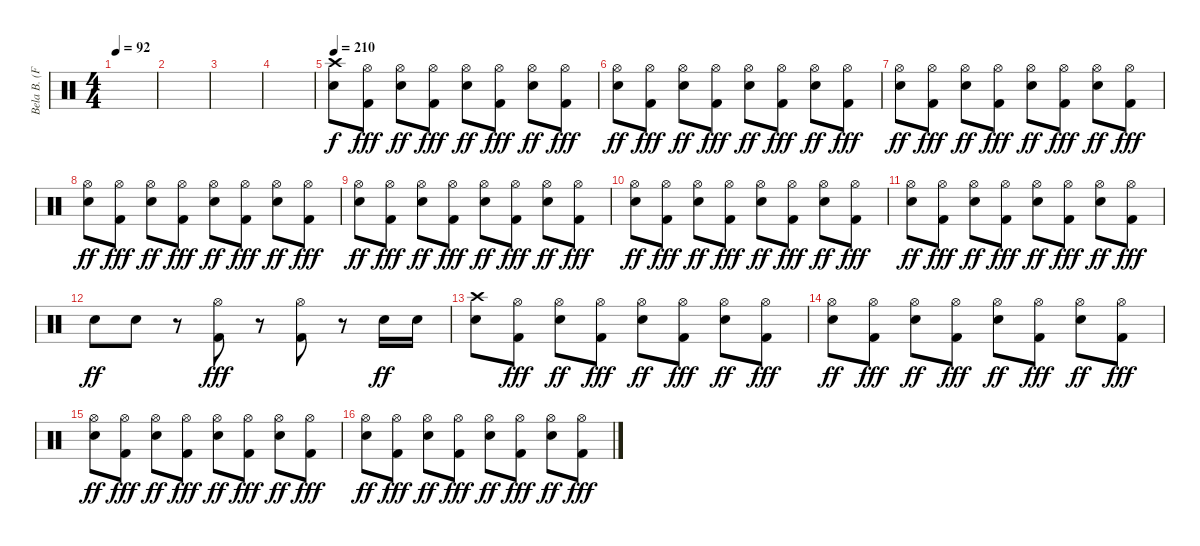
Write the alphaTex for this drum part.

\track ("Bela B. (Felsenheimer)" "Bela B. (F") {instrument percussion}
\staff {score}
\articulation defaults
\ts (4 4)
\tempo 92
\clef neutral
\ks c
|
|
|
|
\tempo 210
("Crash high (hit)" "Electric Snare (hit)").8 ("Hi-Hat (open)" "Kick (hit) 2").8{dy fff} ("Hi-Hat (open)" "Electric Snare (hit)").8{dy ff} ("Hi-Hat (open)" "Kick (hit) 2").8{dy fff} ("Hi-Hat (open)" "Electric Snare (hit)").8{dy ff} ("Hi-Hat (open)" "Kick (hit) 2").8{dy fff} ("Hi-Hat (open)" "Electric Snare (hit)").8{dy ff} ("Hi-Hat (open)" "Kick (hit) 2").8{dy fff} |
("Hi-Hat (open)" "Electric Snare (hit)").8{dy ff} ("Hi-Hat (open)" "Kick (hit) 2").8{dy fff} ("Hi-Hat (open)" "Electric Snare (hit)").8{dy ff} ("Hi-Hat (open)" "Kick (hit) 2").8{dy fff} ("Hi-Hat (open)" "Electric Snare (hit)").8{dy ff} ("Hi-Hat (open)" "Kick (hit) 2").8{dy fff} ("Hi-Hat (open)" "Electric Snare (hit)").8{dy ff} ("Hi-Hat (open)" "Kick (hit) 2").8{dy fff} |
("Hi-Hat (open)" "Electric Snare (hit)").8{dy ff} ("Hi-Hat (open)" "Kick (hit) 2").8{dy fff} ("Hi-Hat (open)" "Electric Snare (hit)").8{dy ff} ("Hi-Hat (open)" "Kick (hit) 2").8{dy fff} ("Hi-Hat (open)" "Electric Snare (hit)").8{dy ff} ("Hi-Hat (open)" "Kick (hit) 2").8{dy fff} ("Hi-Hat (open)" "Electric Snare (hit)").8{dy ff} ("Hi-Hat (open)" "Kick (hit) 2").8{dy fff} |
("Hi-Hat (open)" "Electric Snare (hit)").8{dy ff} ("Hi-Hat (open)" "Kick (hit) 2").8{dy fff} ("Hi-Hat (open)" "Electric Snare (hit)").8{dy ff} ("Hi-Hat (open)" "Kick (hit) 2").8{dy fff} ("Hi-Hat (open)" "Electric Snare (hit)").8{dy ff} ("Hi-Hat (open)" "Kick (hit) 2").8{dy fff} ("Hi-Hat (open)" "Electric Snare (hit)").8{dy ff} ("Hi-Hat (open)" "Kick (hit) 2").8{dy fff} |
("Hi-Hat (open)" "Electric Snare (hit)").8{dy ff} ("Hi-Hat (open)" "Kick (hit) 2").8{dy fff} ("Hi-Hat (open)" "Electric Snare (hit)").8{dy ff} ("Hi-Hat (open)" "Kick (hit) 2").8{dy fff} ("Hi-Hat (open)" "Electric Snare (hit)").8{dy ff} ("Hi-Hat (open)" "Kick (hit) 2").8{dy fff} ("Hi-Hat (open)" "Electric Snare (hit)").8{dy ff} ("Hi-Hat (open)" "Kick (hit) 2").8{dy fff} |
("Hi-Hat (open)" "Electric Snare (hit)").8{dy ff} ("Hi-Hat (open)" "Kick (hit) 2").8{dy fff} ("Hi-Hat (open)" "Electric Snare (hit)").8{dy ff} ("Hi-Hat (open)" "Kick (hit) 2").8{dy fff} ("Hi-Hat (open)" "Electric Snare (hit)").8{dy ff} ("Hi-Hat (open)" "Kick (hit) 2").8{dy fff} ("Hi-Hat (open)" "Electric Snare (hit)").8{dy ff} ("Hi-Hat (open)" "Kick (hit) 2").8{dy fff} |
("Hi-Hat (open)" "Electric Snare (hit)").8{dy ff} ("Hi-Hat (open)" "Kick (hit) 2").8{dy fff} ("Hi-Hat (open)" "Electric Snare (hit)").8{dy ff} ("Hi-Hat (open)" "Kick (hit) 2").8{dy fff} ("Hi-Hat (open)" "Electric Snare (hit)").8{dy ff} ("Hi-Hat (open)" "Kick (hit) 2").8{dy fff} ("Hi-Hat (open)" "Electric Snare (hit)").8{dy ff} ("Hi-Hat (open)" "Kick (hit) 2").8{dy fff} |
"Electric Snare (hit)".8{dy ff} "Electric Snare (hit)".8 r.8 ("Hi-Hat (open)" "Kick (hit) 2").8{dy fff} r.8 ("Hi-Hat (open)" "Kick (hit) 2").8 r.8 "Electric Snare (hit)".16{dy ff} "Electric Snare (hit)".16 |
("Crash high (hit)" "Electric Snare (hit)").8 ("Hi-Hat (open)" "Kick (hit) 2").8{dy fff} ("Hi-Hat (open)" "Electric Snare (hit)").8{dy ff} ("Hi-Hat (open)" "Kick (hit) 2").8{dy fff} ("Hi-Hat (open)" "Electric Snare (hit)").8{dy ff} ("Hi-Hat (open)" "Kick (hit) 2").8{dy fff} ("Hi-Hat (open)" "Electric Snare (hit)").8{dy ff} ("Hi-Hat (open)" "Kick (hit) 2").8{dy fff} |
("Hi-Hat (open)" "Electric Snare (hit)").8{dy ff} ("Hi-Hat (open)" "Kick (hit) 2").8{dy fff} ("Hi-Hat (open)" "Electric Snare (hit)").8{dy ff} ("Hi-Hat (open)" "Kick (hit) 2").8{dy fff} ("Hi-Hat (open)" "Electric Snare (hit)").8{dy ff} ("Hi-Hat (open)" "Kick (hit) 2").8{dy fff} ("Hi-Hat (open)" "Electric Snare (hit)").8{dy ff} ("Hi-Hat (open)" "Kick (hit) 2").8{dy fff} |
("Hi-Hat (open)" "Electric Snare (hit)").8{dy ff} ("Hi-Hat (open)" "Kick (hit) 2").8{dy fff} ("Hi-Hat (open)" "Electric Snare (hit)").8{dy ff} ("Hi-Hat (open)" "Kick (hit) 2").8{dy fff} ("Hi-Hat (open)" "Electric Snare (hit)").8{dy ff} ("Hi-Hat (open)" "Kick (hit) 2").8{dy fff} ("Hi-Hat (open)" "Electric Snare (hit)").8{dy ff} ("Hi-Hat (open)" "Kick (hit) 2").8{dy fff} |
("Hi-Hat (open)" "Electric Snare (hit)").8{dy ff} ("Hi-Hat (open)" "Kick (hit) 2").8{dy fff} ("Hi-Hat (open)" "Electric Snare (hit)").8{dy ff} ("Hi-Hat (open)" "Kick (hit) 2").8{dy fff} ("Hi-Hat (open)" "Electric Snare (hit)").8{dy ff} ("Hi-Hat (open)" "Kick (hit) 2").8{dy fff} ("Hi-Hat (open)" "Electric Snare (hit)").8{dy ff} ("Hi-Hat (open)" "Kick (hit) 2").8{dy fff}
